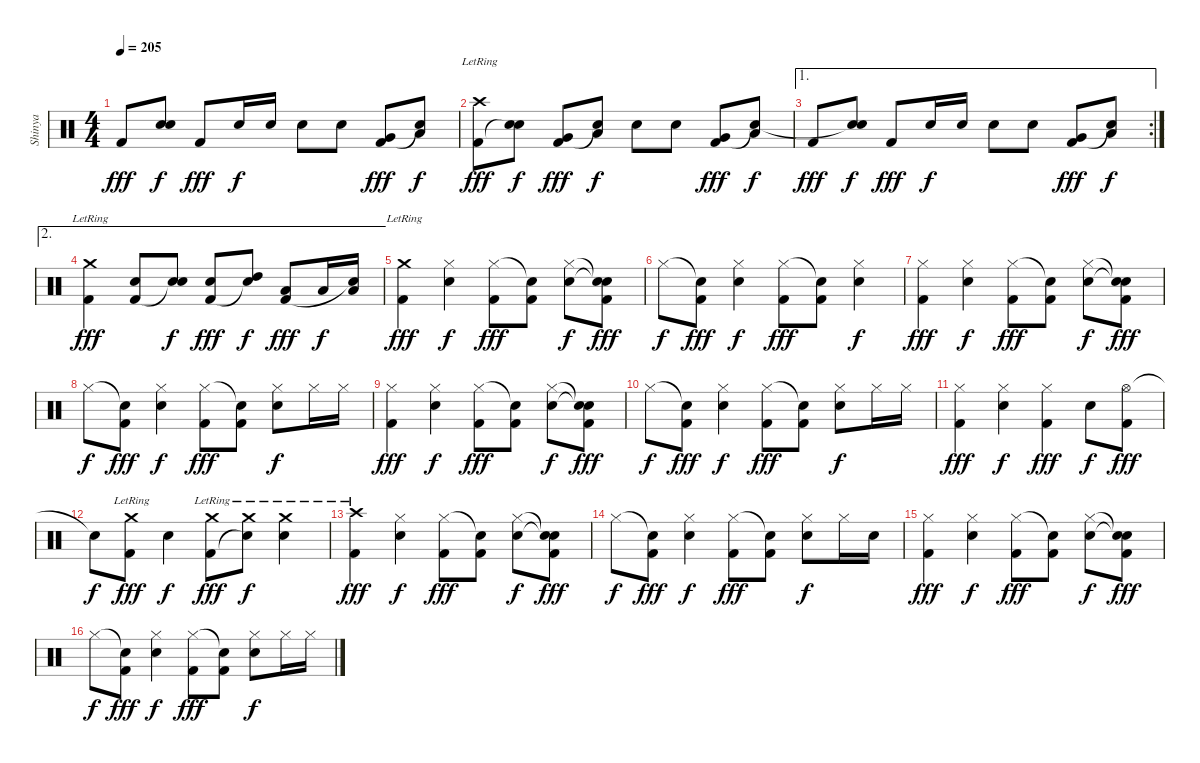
\track ("Shinya" "Shinya") {instrument percussion}
\staff {score}
\articulation defaults
\ts (4 4)
\tempo 205
\clef neutral
\ks c "Kick (hit) 2".8{dy fff}
("Electric Snare (hit)" "Snare (hit)"{t}).8{dy f} "Kick (hit) 2".8{dy fff} "Electric Snare (hit)".16{dy f} "Electric Snare (hit)".16 "Electric Snare (hit)".8 "Electric Snare (hit)".8 ("Very Low Tom (hit)" "Kick (hit) 2").8{dy fff} ("Low Floor Tom (hit)" "Snare (hit)"{t}).8{dy f} |
("Crash high (hit)"{lr} "Kick (hit) 2").8{dy fff} ("Electric Snare (hit)" "Snare (hit)"{t}).8{dy f} ("Very Low Tom (hit)" "Kick (hit) 2").8{dy fff} ("Low Floor Tom (hit)" "Snare (hit)"{t}).8{dy f} "Electric Snare (hit)".8 "Electric Snare (hit)".8 ("Very Low Tom (hit)" "Kick (hit) 2").8{dy fff} ("Low Floor Tom (hit)" "Snare (hit)"{t}).8{dy f} |
\ae 1
\rc 2 "Kick (hit) 2".8{dy fff}
("Electric Snare (hit)" "Snare (hit)"{t}).8{dy f} "Kick (hit) 2".8{dy fff} "Electric Snare (hit)".16{dy f} "Electric Snare (hit)".16 "Electric Snare (hit)".8 "Electric Snare (hit)".8 ("Very Low Tom (hit)" "Kick (hit) 2").8{dy fff} ("Low Floor Tom (hit)" "Snare (hit)"{t}).8{dy f} |
\ae 2
("Crash medium (hit)"{lr} "Kick (hit) 2").4{dy fff} ("Electric Snare (hit)" "Kick (hit) 2").8 ("Electric Snare (hit)" "Snare (hit)"{t}).8{dy f} ("Electric Snare (hit)" "Kick (hit) 2").8{dy fff} ("High Tom (hit)" "Snare (hit)"{t}).8{dy f} ("Low Tom (hit)" "Kick (hit) 2").8{dy fff} "Low Floor Tom (hit)".16{dy f} ("Low Floor Tom (hit)" "Snare (hit)"{t}).16 |
("Crash medium (hit)"{lr} "Kick (hit) 2").4{dy fff} ("Hi-Hat (closed)" "Electric Snare (hit)").4{dy f} ("Hi-Hat (closed)" "Kick (hit) 2").8{dy fff} ("Snare (hit)"{t} "Kick (hit) 2").8 ("Hi-Hat (closed)" "Electric Snare (hit)").8{dy f} ("Snare (hit)"{t} "Snare (hit)"{t} "Kick (hit) 2").8{dy fff} |
"Hi-Hat (closed)".8{dy f} ("Snare (hit)"{t} "Kick (hit) 2").8{dy fff} ("Hi-Hat (closed)" "Electric Snare (hit)").4{dy f} ("Hi-Hat (closed)" "Kick (hit) 2").8{dy fff} ("Snare (hit)"{t} "Kick (hit) 2").8 ("Hi-Hat (closed)" "Electric Snare (hit)").4{dy f} |
("Hi-Hat (closed)" "Kick (hit) 2").4{dy fff} ("Hi-Hat (closed)" "Electric Snare (hit)").4{dy f} ("Hi-Hat (closed)" "Kick (hit) 2").8{dy fff} ("Snare (hit)"{t} "Kick (hit) 2").8 ("Hi-Hat (closed)" "Electric Snare (hit)").8{dy f} ("Snare (hit)"{t} "Snare (hit)"{t} "Kick (hit) 2").8{dy fff} |
"Hi-Hat (closed)".8{dy f} ("Snare (hit)"{t} "Kick (hit) 2").8{dy fff} ("Hi-Hat (closed)" "Electric Snare (hit)").4{dy f} ("Hi-Hat (closed)" "Kick (hit) 2").8{dy fff} ("Snare (hit)"{t} "Kick (hit) 2").8 ("Hi-Hat (closed)" "Electric Snare (hit)").8{dy f} "Hi-Hat (closed)".16 "Hi-Hat (closed)".16 |
("Hi-Hat (closed)" "Kick (hit) 2").4{dy fff} ("Hi-Hat (closed)" "Electric Snare (hit)").4{dy f} ("Hi-Hat (closed)" "Kick (hit) 2").8{dy fff} ("Snare (hit)"{t} "Kick (hit) 2").8 ("Hi-Hat (closed)" "Electric Snare (hit)").8{dy f} ("Snare (hit)"{t} "Snare (hit)"{t} "Kick (hit) 2").8{dy fff} |
"Hi-Hat (closed)".8{dy f} ("Snare (hit)"{t} "Kick (hit) 2").8{dy fff} ("Hi-Hat (closed)" "Electric Snare (hit)").4{dy f} ("Hi-Hat (closed)" "Kick (hit) 2").8{dy fff} ("Snare (hit)"{t} "Kick (hit) 2").8 ("Hi-Hat (closed)" "Electric Snare (hit)").8{dy f} "Hi-Hat (closed)".16 "Hi-Hat (closed)".16 |
("Hi-Hat (closed)" "Kick (hit) 2").4{dy fff} ("Hi-Hat (closed)" "Electric Snare (hit)").4{dy f} ("Hi-Hat (closed)" "Kick (hit) 2").4{dy fff} "Electric Snare (hit)".8{dy f} ("Hi-Hat (open)" "Kick (hit) 2").8{dy fff} |
"Snare (hit)"{t}.8{dy f} ("Crash medium (hit)"{lr} "Kick (hit) 2").8{dy fff} "Electric Snare (hit)".4{dy f} ("Crash medium (hit)"{lr} "Kick (hit) 2").8{dy fff} ("Crash medium (hit)"{lr} "Snare (hit)"{t}).8{dy f} ("Crash medium (hit)"{lr} "Electric Snare (hit)").4 |
("Crash high (hit)"{lr} "Kick (hit) 2").4{dy fff} ("Hi-Hat (closed)" "Electric Snare (hit)").4{dy f} ("Hi-Hat (closed)" "Kick (hit) 2").8{dy fff} ("Snare (hit)"{t} "Kick (hit) 2").8 ("Hi-Hat (closed)" "Electric Snare (hit)").8{dy f} ("Snare (hit)"{t} "Snare (hit)"{t} "Kick (hit) 2").8{dy fff} |
"Hi-Hat (closed)".8{dy f} ("Snare (hit)"{t} "Kick (hit) 2").8{dy fff} ("Hi-Hat (closed)" "Electric Snare (hit)").4{dy f} ("Hi-Hat (closed)" "Kick (hit) 2").8{dy fff} ("Snare (hit)"{t} "Kick (hit) 2").8 ("Hi-Hat (closed)" "Electric Snare (hit)").8{dy f} "Hi-Hat (closed)".16 "Electric Snare (hit)".16 |
("Hi-Hat (closed)" "Kick (hit) 2").4{dy fff} ("Hi-Hat (closed)" "Electric Snare (hit)").4{dy f} ("Hi-Hat (closed)" "Kick (hit) 2").8{dy fff} ("Snare (hit)"{t} "Kick (hit) 2").8 ("Hi-Hat (closed)" "Electric Snare (hit)").8{dy f} ("Snare (hit)"{t} "Snare (hit)"{t} "Kick (hit) 2").8{dy fff} |
"Hi-Hat (closed)".8{dy f} ("Snare (hit)"{t} "Kick (hit) 2").8{dy fff} ("Hi-Hat (closed)" "Electric Snare (hit)").4{dy f} ("Hi-Hat (closed)" "Kick (hit) 2").8{dy fff} ("Snare (hit)"{t} "Kick (hit) 2").8 ("Hi-Hat (closed)" "Electric Snare (hit)").8{dy f} "Hi-Hat (closed)".16 "Hi-Hat (closed)".16
